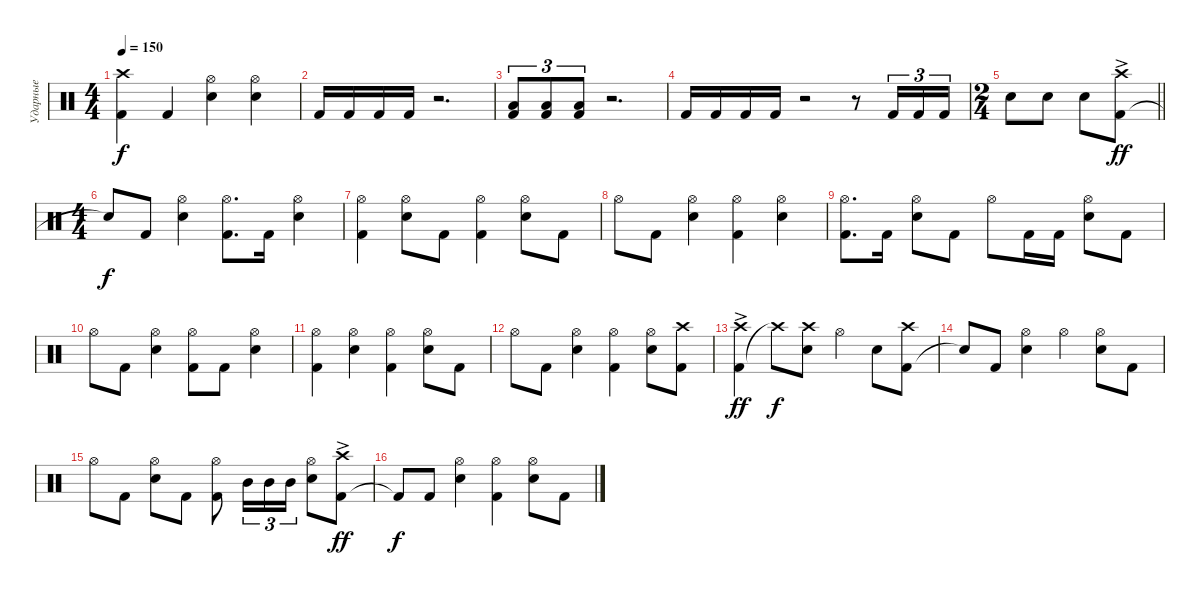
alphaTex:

\track ("Ударные" "Ударные") {instrument percussion}
\staff
\articulation defaults
\ts (4 4)
\tempo 150
\clef neutral
\ks c
("Kick (hit) 2" "Crash high (hit)").4{dy f} "Kick (hit) 2".4 ("Snare (hit) 2" "Hi-Hat (open)").4 ("Snare (hit) 2" "Hi-Hat (open)").4 |
"Kick (hit) 2".16 "Kick (hit) 2".16 "Kick (hit) 2".16 "Kick (hit) 2".16 r.2{d} |
("Kick (hit) 2" "Low Floor Tom (hit)").8{tu (3 2)} ("Kick (hit) 2" "Low Floor Tom (hit)").8{tu (3 2)} ("Kick (hit) 2" "Low Floor Tom (hit)").8{tu (3 2)} r.2{d} |
"Kick (hit) 2".16 "Kick (hit) 2".16 "Kick (hit) 2".16 "Kick (hit) 2".16 r.2 r.8 "Kick (hit) 2".16{tu (3 2)} "Kick (hit) 2".16{tu (3 2)} "Kick (hit) 2".16{tu (3 2)} |
\ts (2 4)
\barLineRight lightlight "Snare (hit) 2".8 "Snare (hit) 2".8 "Snare (hit) 2".8
("Kick (hit) 2" "Crash high (hit)"{ac}).8{dy ff} |
\ts (4 4)
"Snare (hit)"{t}.8{dy f} "Kick (hit) 2".8 ("Snare (hit) 2" "Hi-Hat (open)").4 ("Kick (hit) 2" "Hi-Hat (open)").8{d} "Kick (hit) 2".16 ("Snare (hit) 2" "Hi-Hat (open)").4 |
("Kick (hit) 2" "Hi-Hat (open)").4 ("Snare (hit) 2" "Hi-Hat (open)").8 "Kick (hit) 2".8 ("Kick (hit) 2" "Hi-Hat (open)").4 ("Snare (hit) 2" "Hi-Hat (open)").8 "Kick (hit) 2".8 |
"Hi-Hat (open)".8 "Kick (hit) 2".8 ("Snare (hit) 2" "Hi-Hat (open)").4 ("Kick (hit) 2" "Hi-Hat (open)").4 ("Snare (hit) 2" "Hi-Hat (open)").4 |
("Kick (hit) 2" "Hi-Hat (open)").8{d} "Kick (hit) 2".16 ("Snare (hit) 2" "Hi-Hat (open)").8 "Kick (hit) 2".8 "Hi-Hat (open)".8 "Kick (hit) 2".16 "Kick (hit) 2".16 ("Snare (hit) 2" "Hi-Hat (open)").8 "Kick (hit) 2".8 |
"Hi-Hat (open)".8 "Kick (hit) 2".8 ("Snare (hit) 2" "Hi-Hat (open)").4 ("Kick (hit) 2" "Hi-Hat (open)").8 "Kick (hit) 2".8 ("Snare (hit) 2" "Hi-Hat (open)").4 |
("Kick (hit) 2" "Hi-Hat (open)").4 ("Snare (hit) 2" "Hi-Hat (open)").4 ("Kick (hit) 2" "Hi-Hat (open)").4 ("Snare (hit) 2" "Hi-Hat (open)").8 "Kick (hit) 2".8 |
"Hi-Hat (open)".8 "Kick (hit) 2".8 ("Snare (hit) 2" "Hi-Hat (open)").4 ("Kick (hit) 2" "Hi-Hat (open)").4 ("Snare (hit) 2" "Hi-Hat (open)").8 ("Kick (hit) 2" "Crash high (hit)").8 |
("Kick (hit) 2" "Crash high (hit)"{ac}).4{dy ff} "Crash high (hit)"{t}.8{dy f} ("Snare (hit) 2" "Crash high (hit)").8 "Hi-Hat (open)".4 "Snare (hit) 2".8 ("Kick (hit) 2" "Crash high (hit)").8 |
"Snare (hit)"{t}.8 "Kick (hit) 2".8 ("Snare (hit) 2" "Hi-Hat (open)").4 "Hi-Hat (open)".4 ("Snare (hit) 2" "Hi-Hat (open)").8 "Kick (hit) 2".8 |
"Hi-Hat (open)".8 "Kick (hit) 2".8 ("Snare (hit) 2" "Hi-Hat (open)").8 "Kick (hit) 2".8 ("Kick (hit) 2" "Hi-Hat (open)").8 "Mid Tom (hit)".16{tu (3 2)} "Mid Tom (hit)".16{tu (3 2)} "Mid Tom (hit)".16{tu (3 2)} ("Snare (hit) 2" "Hi-Hat (open)").8 ("Kick (hit) 2" "Crash high (hit)"{ac}).8{dy ff} |
"Kick (hit) 2"{t}.8{dy f} "Kick (hit) 2".8 ("Snare (hit) 2" "Hi-Hat (open)").4 ("Kick (hit) 2" "Hi-Hat (open)").4 ("Snare (hit) 2" "Hi-Hat (open)").8 "Kick (hit) 2".8
